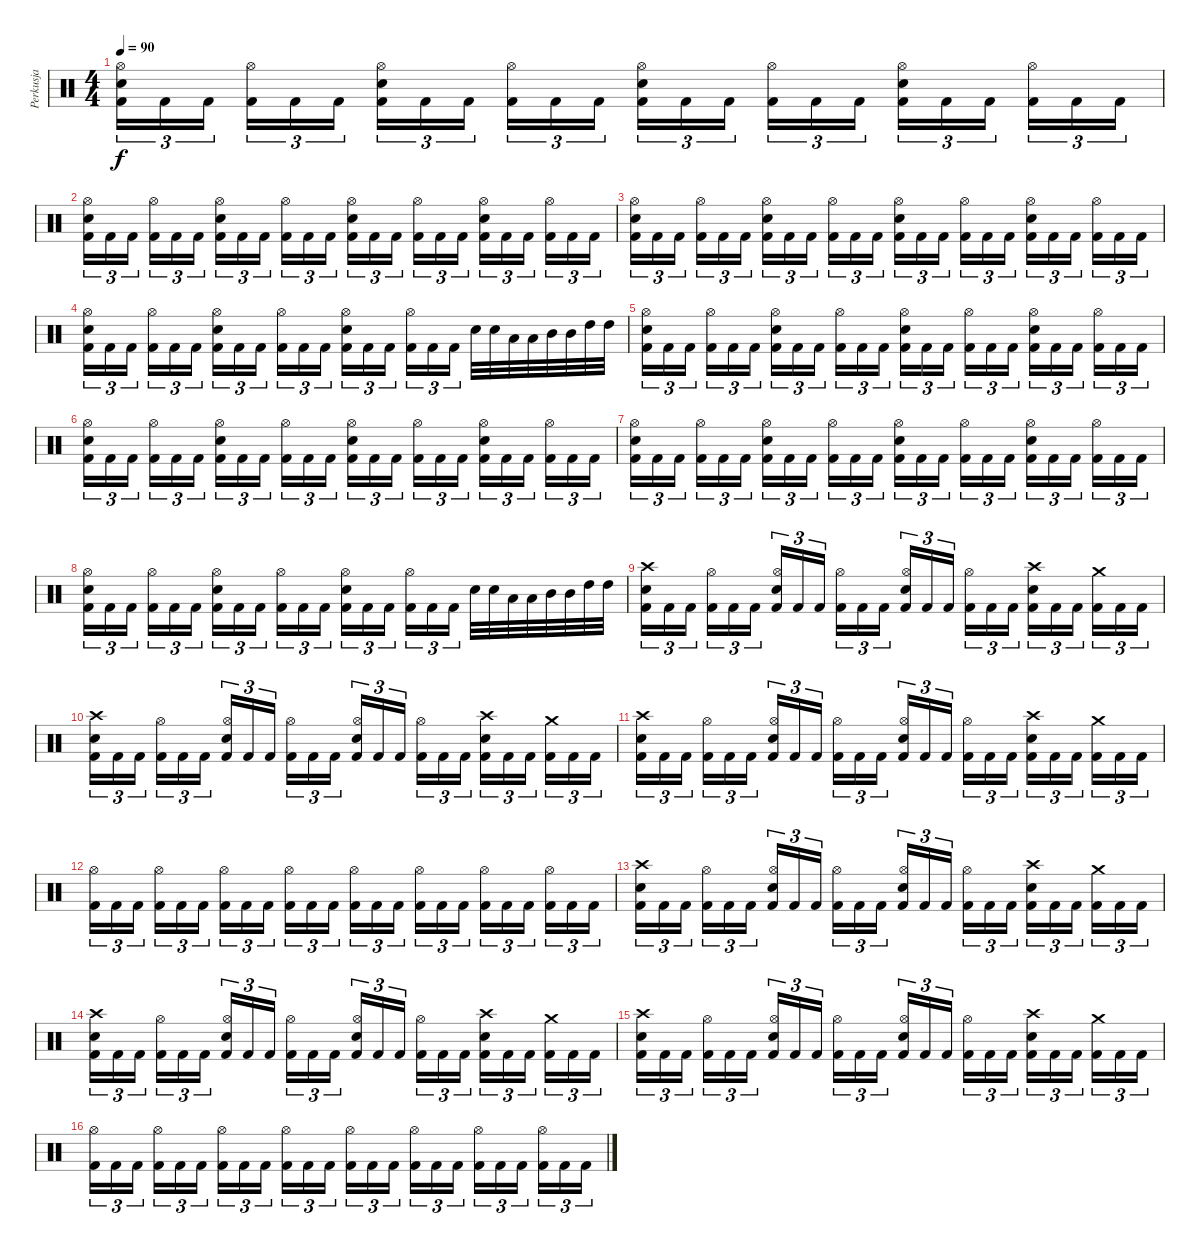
\track ("Perkusja" "Perkusja") {instrument percussion}
\staff {score}
\articulation defaults
\ts (4 4)
\tempo 90
\clef neutral
\ks c
("Kick (hit) 2" "Snare (hit) 2" "Hi-Hat (open)").16{tu (3 2) dy f} "Kick (hit) 2".16{tu (3 2)} "Kick (hit) 2".16{tu (3 2)} ("Kick (hit) 2" "Hi-Hat (open)").16{tu (3 2)} "Kick (hit) 2".16{tu (3 2)} "Kick (hit) 2".16{tu (3 2)} ("Kick (hit) 2" "Snare (hit) 2" "Hi-Hat (open)").16{tu (3 2)} "Kick (hit) 2".16{tu (3 2)} "Kick (hit) 2".16{tu (3 2)} ("Kick (hit) 2" "Hi-Hat (open)").16{tu (3 2)} "Kick (hit) 2".16{tu (3 2)} "Kick (hit) 2".16{tu (3 2)} ("Kick (hit) 2" "Snare (hit) 2" "Hi-Hat (open)").16{tu (3 2)} "Kick (hit) 2".16{tu (3 2)} "Kick (hit) 2".16{tu (3 2)} ("Kick (hit) 2" "Hi-Hat (open)").16{tu (3 2)} "Kick (hit) 2".16{tu (3 2)} "Kick (hit) 2".16{tu (3 2)} ("Kick (hit) 2" "Snare (hit) 2" "Hi-Hat (open)").16{tu (3 2)} "Kick (hit) 2".16{tu (3 2)} "Kick (hit) 2".16{tu (3 2)} ("Kick (hit) 2" "Hi-Hat (open)").16{tu (3 2)} "Kick (hit) 2".16{tu (3 2)} "Kick (hit) 2".16{tu (3 2)} |
("Kick (hit) 2" "Snare (hit) 2" "Hi-Hat (open)").16{tu (3 2)} "Kick (hit) 2".16{tu (3 2)} "Kick (hit) 2".16{tu (3 2)} ("Kick (hit) 2" "Hi-Hat (open)").16{tu (3 2)} "Kick (hit) 2".16{tu (3 2)} "Kick (hit) 2".16{tu (3 2)} ("Kick (hit) 2" "Snare (hit) 2" "Hi-Hat (open)").16{tu (3 2)} "Kick (hit) 2".16{tu (3 2)} "Kick (hit) 2".16{tu (3 2)} ("Kick (hit) 2" "Hi-Hat (open)").16{tu (3 2)} "Kick (hit) 2".16{tu (3 2)} "Kick (hit) 2".16{tu (3 2)} ("Kick (hit) 2" "Snare (hit) 2" "Hi-Hat (open)").16{tu (3 2)} "Kick (hit) 2".16{tu (3 2)} "Kick (hit) 2".16{tu (3 2)} ("Kick (hit) 2" "Hi-Hat (open)").16{tu (3 2)} "Kick (hit) 2".16{tu (3 2)} "Kick (hit) 2".16{tu (3 2)} ("Kick (hit) 2" "Snare (hit) 2" "Hi-Hat (open)").16{tu (3 2)} "Kick (hit) 2".16{tu (3 2)} "Kick (hit) 2".16{tu (3 2)} ("Kick (hit) 2" "Hi-Hat (open)").16{tu (3 2)} "Kick (hit) 2".16{tu (3 2)} "Kick (hit) 2".16{tu (3 2)} |
("Kick (hit) 2" "Snare (hit) 2" "Hi-Hat (open)").16{tu (3 2)} "Kick (hit) 2".16{tu (3 2)} "Kick (hit) 2".16{tu (3 2)} ("Kick (hit) 2" "Hi-Hat (open)").16{tu (3 2)} "Kick (hit) 2".16{tu (3 2)} "Kick (hit) 2".16{tu (3 2)} ("Kick (hit) 2" "Snare (hit) 2" "Hi-Hat (open)").16{tu (3 2)} "Kick (hit) 2".16{tu (3 2)} "Kick (hit) 2".16{tu (3 2)} ("Kick (hit) 2" "Hi-Hat (open)").16{tu (3 2)} "Kick (hit) 2".16{tu (3 2)} "Kick (hit) 2".16{tu (3 2)} ("Kick (hit) 2" "Snare (hit) 2" "Hi-Hat (open)").16{tu (3 2)} "Kick (hit) 2".16{tu (3 2)} "Kick (hit) 2".16{tu (3 2)} ("Kick (hit) 2" "Hi-Hat (open)").16{tu (3 2)} "Kick (hit) 2".16{tu (3 2)} "Kick (hit) 2".16{tu (3 2)} ("Kick (hit) 2" "Snare (hit) 2" "Hi-Hat (open)").16{tu (3 2)} "Kick (hit) 2".16{tu (3 2)} "Kick (hit) 2".16{tu (3 2)} ("Kick (hit) 2" "Hi-Hat (open)").16{tu (3 2)} "Kick (hit) 2".16{tu (3 2)} "Kick (hit) 2".16{tu (3 2)} |
("Kick (hit) 2" "Snare (hit) 2" "Hi-Hat (open)").16{tu (3 2)} "Kick (hit) 2".16{tu (3 2)} "Kick (hit) 2".16{tu (3 2)} ("Kick (hit) 2" "Hi-Hat (open)").16{tu (3 2)} "Kick (hit) 2".16{tu (3 2)} "Kick (hit) 2".16{tu (3 2)} ("Kick (hit) 2" "Snare (hit) 2" "Hi-Hat (open)").16{tu (3 2)} "Kick (hit) 2".16{tu (3 2)} "Kick (hit) 2".16{tu (3 2)} ("Kick (hit) 2" "Hi-Hat (open)").16{tu (3 2)} "Kick (hit) 2".16{tu (3 2)} "Kick (hit) 2".16{tu (3 2)} ("Kick (hit) 2" "Snare (hit) 2" "Hi-Hat (open)").16{tu (3 2)} "Kick (hit) 2".16{tu (3 2)} "Kick (hit) 2".16{tu (3 2)} ("Kick (hit) 2" "Hi-Hat (open)").16{tu (3 2)} "Kick (hit) 2".16{tu (3 2)} "Kick (hit) 2".16{tu (3 2)} "Snare (hit) 2".32 "Snare (hit) 2".32 "Low Tom (hit)".32 "Low Tom (hit)".32 "Mid Tom (hit)".32 "Mid Tom (hit)".32 "High Tom (hit)".32 "High Tom (hit)".32 |
("Kick (hit) 2" "Snare (hit) 2" "Hi-Hat (open)").16{tu (3 2)} "Kick (hit) 2".16{tu (3 2)} "Kick (hit) 2".16{tu (3 2)} ("Kick (hit) 2" "Hi-Hat (open)").16{tu (3 2)} "Kick (hit) 2".16{tu (3 2)} "Kick (hit) 2".16{tu (3 2)} ("Kick (hit) 2" "Snare (hit) 2" "Hi-Hat (open)").16{tu (3 2)} "Kick (hit) 2".16{tu (3 2)} "Kick (hit) 2".16{tu (3 2)} ("Kick (hit) 2" "Hi-Hat (open)").16{tu (3 2)} "Kick (hit) 2".16{tu (3 2)} "Kick (hit) 2".16{tu (3 2)} ("Kick (hit) 2" "Snare (hit) 2" "Hi-Hat (open)").16{tu (3 2)} "Kick (hit) 2".16{tu (3 2)} "Kick (hit) 2".16{tu (3 2)} ("Kick (hit) 2" "Hi-Hat (open)").16{tu (3 2)} "Kick (hit) 2".16{tu (3 2)} "Kick (hit) 2".16{tu (3 2)} ("Kick (hit) 2" "Snare (hit) 2" "Hi-Hat (open)").16{tu (3 2)} "Kick (hit) 2".16{tu (3 2)} "Kick (hit) 2".16{tu (3 2)} ("Kick (hit) 2" "Hi-Hat (open)").16{tu (3 2)} "Kick (hit) 2".16{tu (3 2)} "Kick (hit) 2".16{tu (3 2)} |
("Kick (hit) 2" "Snare (hit) 2" "Hi-Hat (open)").16{tu (3 2)} "Kick (hit) 2".16{tu (3 2)} "Kick (hit) 2".16{tu (3 2)} ("Kick (hit) 2" "Hi-Hat (open)").16{tu (3 2)} "Kick (hit) 2".16{tu (3 2)} "Kick (hit) 2".16{tu (3 2)} ("Kick (hit) 2" "Snare (hit) 2" "Hi-Hat (open)").16{tu (3 2)} "Kick (hit) 2".16{tu (3 2)} "Kick (hit) 2".16{tu (3 2)} ("Kick (hit) 2" "Hi-Hat (open)").16{tu (3 2)} "Kick (hit) 2".16{tu (3 2)} "Kick (hit) 2".16{tu (3 2)} ("Kick (hit) 2" "Snare (hit) 2" "Hi-Hat (open)").16{tu (3 2)} "Kick (hit) 2".16{tu (3 2)} "Kick (hit) 2".16{tu (3 2)} ("Kick (hit) 2" "Hi-Hat (open)").16{tu (3 2)} "Kick (hit) 2".16{tu (3 2)} "Kick (hit) 2".16{tu (3 2)} ("Kick (hit) 2" "Snare (hit) 2" "Hi-Hat (open)").16{tu (3 2)} "Kick (hit) 2".16{tu (3 2)} "Kick (hit) 2".16{tu (3 2)} ("Kick (hit) 2" "Hi-Hat (open)").16{tu (3 2)} "Kick (hit) 2".16{tu (3 2)} "Kick (hit) 2".16{tu (3 2)} |
("Kick (hit) 2" "Snare (hit) 2" "Hi-Hat (open)").16{tu (3 2)} "Kick (hit) 2".16{tu (3 2)} "Kick (hit) 2".16{tu (3 2)} ("Kick (hit) 2" "Hi-Hat (open)").16{tu (3 2)} "Kick (hit) 2".16{tu (3 2)} "Kick (hit) 2".16{tu (3 2)} ("Kick (hit) 2" "Snare (hit) 2" "Hi-Hat (open)").16{tu (3 2)} "Kick (hit) 2".16{tu (3 2)} "Kick (hit) 2".16{tu (3 2)} ("Kick (hit) 2" "Hi-Hat (open)").16{tu (3 2)} "Kick (hit) 2".16{tu (3 2)} "Kick (hit) 2".16{tu (3 2)} ("Kick (hit) 2" "Snare (hit) 2" "Hi-Hat (open)").16{tu (3 2)} "Kick (hit) 2".16{tu (3 2)} "Kick (hit) 2".16{tu (3 2)} ("Kick (hit) 2" "Hi-Hat (open)").16{tu (3 2)} "Kick (hit) 2".16{tu (3 2)} "Kick (hit) 2".16{tu (3 2)} ("Kick (hit) 2" "Snare (hit) 2" "Hi-Hat (open)").16{tu (3 2)} "Kick (hit) 2".16{tu (3 2)} "Kick (hit) 2".16{tu (3 2)} ("Kick (hit) 2" "Hi-Hat (open)").16{tu (3 2)} "Kick (hit) 2".16{tu (3 2)} "Kick (hit) 2".16{tu (3 2)} |
("Kick (hit) 2" "Snare (hit) 2" "Hi-Hat (open)").16{tu (3 2)} "Kick (hit) 2".16{tu (3 2)} "Kick (hit) 2".16{tu (3 2)} ("Kick (hit) 2" "Hi-Hat (open)").16{tu (3 2)} "Kick (hit) 2".16{tu (3 2)} "Kick (hit) 2".16{tu (3 2)} ("Kick (hit) 2" "Snare (hit) 2" "Hi-Hat (open)").16{tu (3 2)} "Kick (hit) 2".16{tu (3 2)} "Kick (hit) 2".16{tu (3 2)} ("Kick (hit) 2" "Hi-Hat (open)").16{tu (3 2)} "Kick (hit) 2".16{tu (3 2)} "Kick (hit) 2".16{tu (3 2)} ("Kick (hit) 2" "Snare (hit) 2" "Hi-Hat (open)").16{tu (3 2)} "Kick (hit) 2".16{tu (3 2)} "Kick (hit) 2".16{tu (3 2)} ("Kick (hit) 2" "Hi-Hat (open)").16{tu (3 2)} "Kick (hit) 2".16{tu (3 2)} "Kick (hit) 2".16{tu (3 2)} "Snare (hit) 2".32 "Snare (hit) 2".32 "Low Tom (hit)".32 "Low Tom (hit)".32 "Mid Tom (hit)".32 "Mid Tom (hit)".32 "High Tom (hit)".32 "High Tom (hit)".32 |
("Kick (hit) 2" "Electric Snare (hit)" "Crash high (hit)").16{tu (3 2)} "Kick (hit) 2".16{tu (3 2)} "Kick (hit) 2".16{tu (3 2)} ("Kick (hit) 2" "Hi-Hat (open)").16{tu (3 2)} "Kick (hit) 2".16{tu (3 2)} "Kick (hit) 2".16{tu (3 2)} ("Kick (hit) 2" "Electric Snare (hit)" "Hi-Hat (open)").16{tu (3 2)} "Kick (hit) 2".16{tu (3 2)} "Kick (hit) 2".16{tu (3 2)} ("Kick (hit) 2" "Hi-Hat (open)").16{tu (3 2)} "Kick (hit) 2".16{tu (3 2)} "Kick (hit) 2".16{tu (3 2)} ("Kick (hit) 2" "Electric Snare (hit)" "Hi-Hat (open)").16{tu (3 2)} "Kick (hit) 2".16{tu (3 2)} "Kick (hit) 2".16{tu (3 2)} ("Kick (hit) 2" "Hi-Hat (open)").16{tu (3 2)} "Kick (hit) 2".16{tu (3 2)} "Kick (hit) 2".16{tu (3 2)} ("Kick (hit) 2" "Electric Snare (hit)" "Crash high (hit)").16{tu (3 2)} "Kick (hit) 2".16{tu (3 2)} "Kick (hit) 2".16{tu (3 2)} ("Kick (hit) 2" "Crash medium (hit)").16{tu (3 2)} "Kick (hit) 2".16{tu (3 2)} "Kick (hit) 2".16{tu (3 2)} |
("Kick (hit) 2" "Electric Snare (hit)" "Crash high (hit)").16{tu (3 2)} "Kick (hit) 2".16{tu (3 2)} "Kick (hit) 2".16{tu (3 2)} ("Kick (hit) 2" "Hi-Hat (open)").16{tu (3 2)} "Kick (hit) 2".16{tu (3 2)} "Kick (hit) 2".16{tu (3 2)} ("Kick (hit) 2" "Electric Snare (hit)" "Hi-Hat (open)").16{tu (3 2)} "Kick (hit) 2".16{tu (3 2)} "Kick (hit) 2".16{tu (3 2)} ("Kick (hit) 2" "Hi-Hat (open)").16{tu (3 2)} "Kick (hit) 2".16{tu (3 2)} "Kick (hit) 2".16{tu (3 2)} ("Kick (hit) 2" "Electric Snare (hit)" "Hi-Hat (open)").16{tu (3 2)} "Kick (hit) 2".16{tu (3 2)} "Kick (hit) 2".16{tu (3 2)} ("Kick (hit) 2" "Hi-Hat (open)").16{tu (3 2)} "Kick (hit) 2".16{tu (3 2)} "Kick (hit) 2".16{tu (3 2)} ("Kick (hit) 2" "Electric Snare (hit)" "Crash high (hit)").16{tu (3 2)} "Kick (hit) 2".16{tu (3 2)} "Kick (hit) 2".16{tu (3 2)} ("Kick (hit) 2" "Crash medium (hit)").16{tu (3 2)} "Kick (hit) 2".16{tu (3 2)} "Kick (hit) 2".16{tu (3 2)} |
("Kick (hit) 2" "Electric Snare (hit)" "Crash high (hit)").16{tu (3 2)} "Kick (hit) 2".16{tu (3 2)} "Kick (hit) 2".16{tu (3 2)} ("Kick (hit) 2" "Hi-Hat (open)").16{tu (3 2)} "Kick (hit) 2".16{tu (3 2)} "Kick (hit) 2".16{tu (3 2)} ("Kick (hit) 2" "Electric Snare (hit)" "Hi-Hat (open)").16{tu (3 2)} "Kick (hit) 2".16{tu (3 2)} "Kick (hit) 2".16{tu (3 2)} ("Kick (hit) 2" "Hi-Hat (open)").16{tu (3 2)} "Kick (hit) 2".16{tu (3 2)} "Kick (hit) 2".16{tu (3 2)} ("Kick (hit) 2" "Electric Snare (hit)" "Hi-Hat (open)").16{tu (3 2)} "Kick (hit) 2".16{tu (3 2)} "Kick (hit) 2".16{tu (3 2)} ("Kick (hit) 2" "Hi-Hat (open)").16{tu (3 2)} "Kick (hit) 2".16{tu (3 2)} "Kick (hit) 2".16{tu (3 2)} ("Kick (hit) 2" "Electric Snare (hit)" "Crash high (hit)").16{tu (3 2)} "Kick (hit) 2".16{tu (3 2)} "Kick (hit) 2".16{tu (3 2)} ("Kick (hit) 2" "Crash medium (hit)").16{tu (3 2)} "Kick (hit) 2".16{tu (3 2)} "Kick (hit) 2".16{tu (3 2)} |
("Kick (hit) 2" "Hi-Hat (open)").16{tu (3 2)} "Kick (hit) 2".16{tu (3 2)} "Kick (hit) 2".16{tu (3 2)} ("Kick (hit) 2" "Hi-Hat (open)").16{tu (3 2)} "Kick (hit) 2".16{tu (3 2)} "Kick (hit) 2".16{tu (3 2)} ("Kick (hit) 2" "Hi-Hat (open)").16{tu (3 2)} "Kick (hit) 2".16{tu (3 2)} "Kick (hit) 2".16{tu (3 2)} ("Kick (hit) 2" "Hi-Hat (open)").16{tu (3 2)} "Kick (hit) 2".16{tu (3 2)} "Kick (hit) 2".16{tu (3 2)} ("Kick (hit) 2" "Hi-Hat (open)").16{tu (3 2)} "Kick (hit) 2".16{tu (3 2)} "Kick (hit) 2".16{tu (3 2)} ("Kick (hit) 2" "Hi-Hat (open)").16{tu (3 2)} "Kick (hit) 2".16{tu (3 2)} "Kick (hit) 2".16{tu (3 2)} ("Kick (hit) 2" "Hi-Hat (open)").16{tu (3 2)} "Kick (hit) 2".16{tu (3 2)} "Kick (hit) 2".16{tu (3 2)} ("Kick (hit) 2" "Hi-Hat (open)").16{tu (3 2)} "Kick (hit) 2".16{tu (3 2)} "Kick (hit) 2".16{tu (3 2)} |
("Kick (hit) 2" "Electric Snare (hit)" "Crash high (hit)").16{tu (3 2)} "Kick (hit) 2".16{tu (3 2)} "Kick (hit) 2".16{tu (3 2)} ("Kick (hit) 2" "Hi-Hat (open)").16{tu (3 2)} "Kick (hit) 2".16{tu (3 2)} "Kick (hit) 2".16{tu (3 2)} ("Kick (hit) 2" "Electric Snare (hit)" "Hi-Hat (open)").16{tu (3 2)} "Kick (hit) 2".16{tu (3 2)} "Kick (hit) 2".16{tu (3 2)} ("Kick (hit) 2" "Hi-Hat (open)").16{tu (3 2)} "Kick (hit) 2".16{tu (3 2)} "Kick (hit) 2".16{tu (3 2)} ("Kick (hit) 2" "Electric Snare (hit)" "Hi-Hat (open)").16{tu (3 2)} "Kick (hit) 2".16{tu (3 2)} "Kick (hit) 2".16{tu (3 2)} ("Kick (hit) 2" "Hi-Hat (open)").16{tu (3 2)} "Kick (hit) 2".16{tu (3 2)} "Kick (hit) 2".16{tu (3 2)} ("Kick (hit) 2" "Electric Snare (hit)" "Crash high (hit)").16{tu (3 2)} "Kick (hit) 2".16{tu (3 2)} "Kick (hit) 2".16{tu (3 2)} ("Kick (hit) 2" "Crash medium (hit)").16{tu (3 2)} "Kick (hit) 2".16{tu (3 2)} "Kick (hit) 2".16{tu (3 2)} |
("Kick (hit) 2" "Electric Snare (hit)" "Crash high (hit)").16{tu (3 2)} "Kick (hit) 2".16{tu (3 2)} "Kick (hit) 2".16{tu (3 2)} ("Kick (hit) 2" "Hi-Hat (open)").16{tu (3 2)} "Kick (hit) 2".16{tu (3 2)} "Kick (hit) 2".16{tu (3 2)} ("Kick (hit) 2" "Electric Snare (hit)" "Hi-Hat (open)").16{tu (3 2)} "Kick (hit) 2".16{tu (3 2)} "Kick (hit) 2".16{tu (3 2)} ("Kick (hit) 2" "Hi-Hat (open)").16{tu (3 2)} "Kick (hit) 2".16{tu (3 2)} "Kick (hit) 2".16{tu (3 2)} ("Kick (hit) 2" "Electric Snare (hit)" "Hi-Hat (open)").16{tu (3 2)} "Kick (hit) 2".16{tu (3 2)} "Kick (hit) 2".16{tu (3 2)} ("Kick (hit) 2" "Hi-Hat (open)").16{tu (3 2)} "Kick (hit) 2".16{tu (3 2)} "Kick (hit) 2".16{tu (3 2)} ("Kick (hit) 2" "Electric Snare (hit)" "Crash high (hit)").16{tu (3 2)} "Kick (hit) 2".16{tu (3 2)} "Kick (hit) 2".16{tu (3 2)} ("Kick (hit) 2" "Crash medium (hit)").16{tu (3 2)} "Kick (hit) 2".16{tu (3 2)} "Kick (hit) 2".16{tu (3 2)} |
("Kick (hit) 2" "Electric Snare (hit)" "Crash high (hit)").16{tu (3 2)} "Kick (hit) 2".16{tu (3 2)} "Kick (hit) 2".16{tu (3 2)} ("Kick (hit) 2" "Hi-Hat (open)").16{tu (3 2)} "Kick (hit) 2".16{tu (3 2)} "Kick (hit) 2".16{tu (3 2)} ("Kick (hit) 2" "Electric Snare (hit)" "Hi-Hat (open)").16{tu (3 2)} "Kick (hit) 2".16{tu (3 2)} "Kick (hit) 2".16{tu (3 2)} ("Kick (hit) 2" "Hi-Hat (open)").16{tu (3 2)} "Kick (hit) 2".16{tu (3 2)} "Kick (hit) 2".16{tu (3 2)} ("Kick (hit) 2" "Electric Snare (hit)" "Hi-Hat (open)").16{tu (3 2)} "Kick (hit) 2".16{tu (3 2)} "Kick (hit) 2".16{tu (3 2)} ("Kick (hit) 2" "Hi-Hat (open)").16{tu (3 2)} "Kick (hit) 2".16{tu (3 2)} "Kick (hit) 2".16{tu (3 2)} ("Kick (hit) 2" "Electric Snare (hit)" "Crash high (hit)").16{tu (3 2)} "Kick (hit) 2".16{tu (3 2)} "Kick (hit) 2".16{tu (3 2)} ("Kick (hit) 2" "Crash medium (hit)").16{tu (3 2)} "Kick (hit) 2".16{tu (3 2)} "Kick (hit) 2".16{tu (3 2)} |
("Kick (hit) 2" "Hi-Hat (open)").16{tu (3 2)} "Kick (hit) 2".16{tu (3 2)} "Kick (hit) 2".16{tu (3 2)} ("Kick (hit) 2" "Hi-Hat (open)").16{tu (3 2)} "Kick (hit) 2".16{tu (3 2)} "Kick (hit) 2".16{tu (3 2)} ("Kick (hit) 2" "Hi-Hat (open)").16{tu (3 2)} "Kick (hit) 2".16{tu (3 2)} "Kick (hit) 2".16{tu (3 2)} ("Kick (hit) 2" "Hi-Hat (open)").16{tu (3 2)} "Kick (hit) 2".16{tu (3 2)} "Kick (hit) 2".16{tu (3 2)} ("Kick (hit) 2" "Hi-Hat (open)").16{tu (3 2)} "Kick (hit) 2".16{tu (3 2)} "Kick (hit) 2".16{tu (3 2)} ("Kick (hit) 2" "Hi-Hat (open)").16{tu (3 2)} "Kick (hit) 2".16{tu (3 2)} "Kick (hit) 2".16{tu (3 2)} ("Kick (hit) 2" "Hi-Hat (open)").16{tu (3 2)} "Kick (hit) 2".16{tu (3 2)} "Kick (hit) 2".16{tu (3 2)} ("Kick (hit) 2" "Hi-Hat (open)").16{tu (3 2)} "Kick (hit) 2".16{tu (3 2)} "Kick (hit) 2".16{tu (3 2)}
